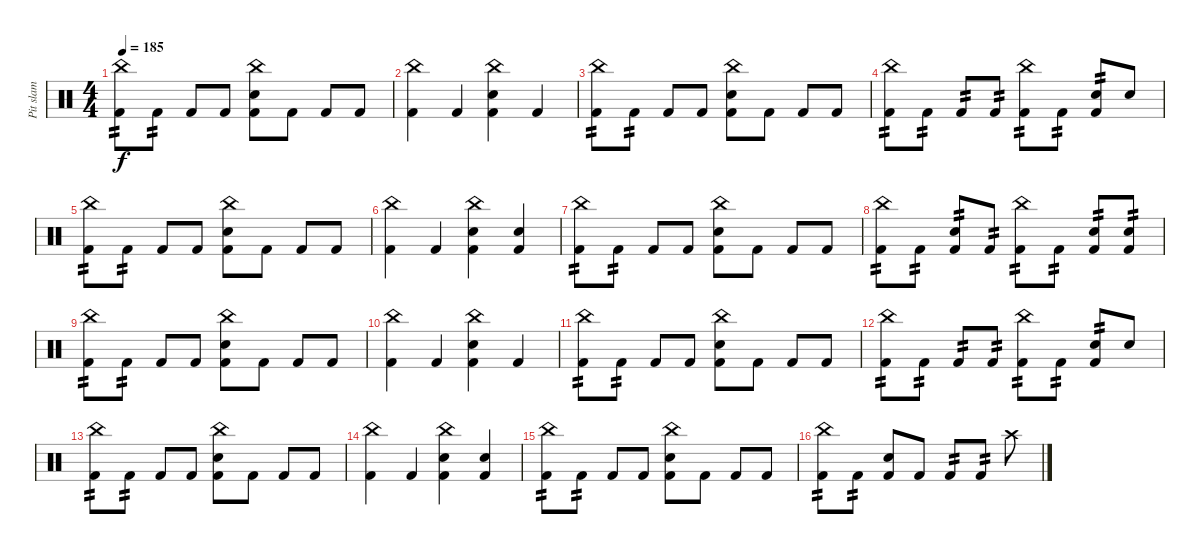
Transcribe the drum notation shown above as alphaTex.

\track ("Pit slam" "Pit slam") {instrument percussion}
\staff {score}
\articulation defaults
\ts (4 4)
\tempo 185
\clef neutral
\ks c
("China (hit)" "Kick (hit) 2").8{tp 2 dy f} "Kick (hit) 2".8{tp 2} "Kick (hit) 2".8 "Kick (hit) 2".8 ("China (hit)" "Electric Snare (hit)" "Kick (hit) 2").8 "Kick (hit) 2".8 "Kick (hit) 2".8 "Kick (hit) 2".8 |
("China (hit)" "Kick (hit) 2").4 "Kick (hit) 2".4 ("China (hit)" "Electric Snare (hit)" "Kick (hit) 2").4 "Kick (hit) 2".4 |
("China (hit)" "Kick (hit) 2").8{tp 2} "Kick (hit) 2".8{tp 2} "Kick (hit) 2".8 "Kick (hit) 2".8 ("China (hit)" "Electric Snare (hit)" "Kick (hit) 2").8 "Kick (hit) 2".8 "Kick (hit) 2".8 "Kick (hit) 2".8 |
("China (hit)" "Kick (hit) 2").8{tp 2} "Kick (hit) 2".8{tp 2} "Kick (hit) 2".8{tp 2} "Kick (hit) 2".8{tp 2} ("China (hit)" "Kick (hit) 2").8{tp 2} "Kick (hit) 2".8{tp 2} ("Electric Snare (hit)" "Kick (hit) 2").8{tp 2} "Electric Snare (hit)".8 |
("China (hit)" "Kick (hit) 2").8{tp 2} "Kick (hit) 2".8{tp 2} "Kick (hit) 2".8 "Kick (hit) 2".8 ("China (hit)" "Electric Snare (hit)" "Kick (hit) 2").8 "Kick (hit) 2".8 "Kick (hit) 2".8 "Kick (hit) 2".8 |
("China (hit)" "Kick (hit) 2").4 "Kick (hit) 2".4 ("China (hit)" "Electric Snare (hit)" "Kick (hit) 2").4 ("Electric Snare (hit)" "Kick (hit) 2").4 |
("China (hit)" "Kick (hit) 2").8{tp 2} "Kick (hit) 2".8{tp 2} "Kick (hit) 2".8 "Kick (hit) 2".8 ("China (hit)" "Electric Snare (hit)" "Kick (hit) 2").8 "Kick (hit) 2".8 "Kick (hit) 2".8 "Kick (hit) 2".8 |
("China (hit)" "Kick (hit) 2").8{tp 2} "Kick (hit) 2".8{tp 2} ("Electric Snare (hit)" "Kick (hit) 2").8{tp 2} "Kick (hit) 2".8{tp 2} ("China (hit)" "Kick (hit) 2").8{tp 2} "Kick (hit) 2".8{tp 2} ("Electric Snare (hit)" "Kick (hit) 2").8{tp 2} ("Electric Snare (hit)" "Kick (hit) 2").8{tp 2} |
("China (hit)" "Kick (hit) 2").8{tp 2} "Kick (hit) 2".8{tp 2} "Kick (hit) 2".8 "Kick (hit) 2".8 ("China (hit)" "Electric Snare (hit)" "Kick (hit) 2").8 "Kick (hit) 2".8 "Kick (hit) 2".8 "Kick (hit) 2".8 |
("China (hit)" "Kick (hit) 2").4 "Kick (hit) 2".4 ("China (hit)" "Electric Snare (hit)" "Kick (hit) 2").4 "Kick (hit) 2".4 |
("China (hit)" "Kick (hit) 2").8{tp 2} "Kick (hit) 2".8{tp 2} "Kick (hit) 2".8 "Kick (hit) 2".8 ("China (hit)" "Electric Snare (hit)" "Kick (hit) 2").8 "Kick (hit) 2".8 "Kick (hit) 2".8 "Kick (hit) 2".8 |
("China (hit)" "Kick (hit) 2").8{tp 2} "Kick (hit) 2".8{tp 2} "Kick (hit) 2".8{tp 2} "Kick (hit) 2".8{tp 2} ("China (hit)" "Kick (hit) 2").8{tp 2} "Kick (hit) 2".8{tp 2} ("Electric Snare (hit)" "Kick (hit) 2").8{tp 2} "Electric Snare (hit)".8 |
("China (hit)" "Kick (hit) 2").8{tp 2} "Kick (hit) 2".8{tp 2} "Kick (hit) 2".8 "Kick (hit) 2".8 ("China (hit)" "Electric Snare (hit)" "Kick (hit) 2").8 "Kick (hit) 2".8 "Kick (hit) 2".8 "Kick (hit) 2".8 |
("China (hit)" "Kick (hit) 2").4 "Kick (hit) 2".4 ("China (hit)" "Electric Snare (hit)" "Kick (hit) 2").4 ("Electric Snare (hit)" "Kick (hit) 2").4 |
("China (hit)" "Kick (hit) 2").8{tp 2} "Kick (hit) 2".8{tp 2} "Kick (hit) 2".8 "Kick (hit) 2".8 ("China (hit)" "Electric Snare (hit)" "Kick (hit) 2").8 "Kick (hit) 2".8 "Kick (hit) 2".8 "Kick (hit) 2".8 |
("China (hit)" "Kick (hit) 2").8{tp 2} "Kick (hit) 2".8{tp 2} ("Electric Snare (hit)" "Kick (hit) 2").8 "Kick (hit) 2".8 "Kick (hit) 2".8{tp 2} "Kick (hit) 2".8{tp 2} "Crash high (hit)".8
